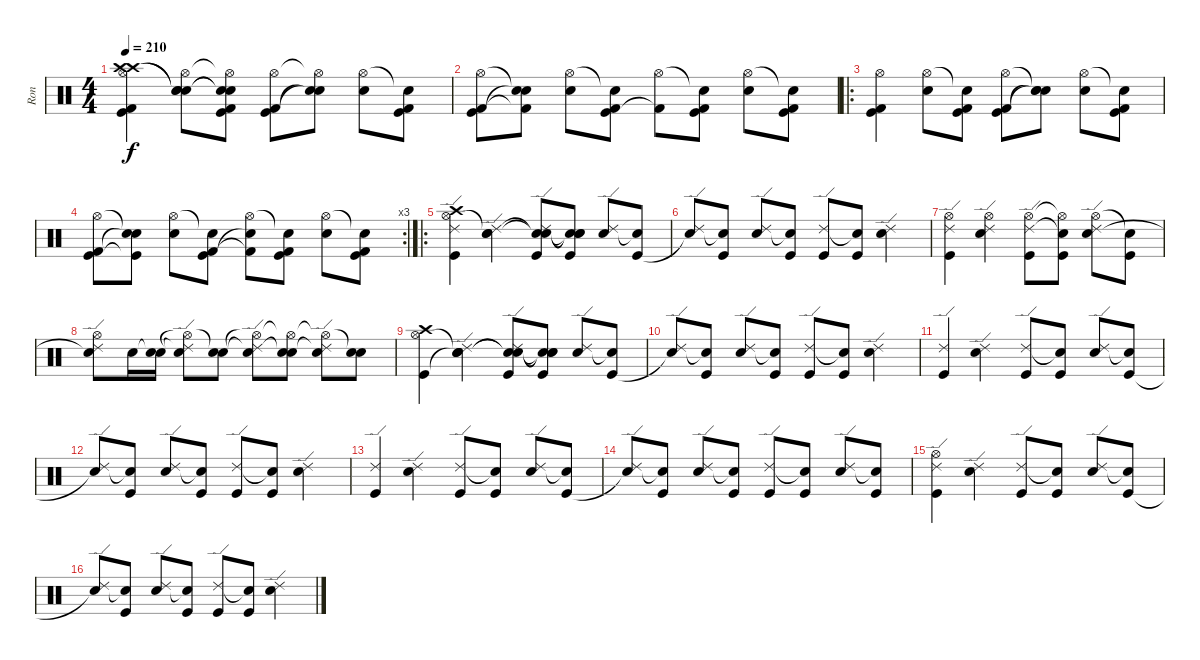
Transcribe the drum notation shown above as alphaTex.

\track ("Ron" "Ron") {instrument percussion}
\staff {score}
\articulation defaults
\ts (4 4)
\tempo 210
\clef neutral
\ks c
("Hi-Hat (open)" "Crash high (hit)" "Crash high (hit)" "Kick (hit)" "Kick (hit) 2").4{dy f} ("Hi-Hat (open)" "Snare (hit)"{t} "Snare (hit)"{t} "Electric Snare (hit)").8 ("Hi-Hat (open)"{t} "Snare (hit)"{t} "Snare (hit)"{t} "Kick (hit)" "Kick (hit) 2").8 ("Hi-Hat (open)" "Kick (hit)" "Kick (hit) 2").8 ("Hi-Hat (open)"{t} "Electric Snare (hit)"{t} "Snare (hit)"{t}).8 ("Hi-Hat (open)" "Electric Snare (hit)").8 ("Snare (hit)"{t} "Kick (hit)" "Kick (hit) 2").8 |
("Hi-Hat (open)" "Kick (hit)" "Kick (hit) 2").8 ("Snare (hit)"{t} "Snare (hit)"{t} "Kick (hit) 2"{t}).8 ("Hi-Hat (open)" "Electric Snare (hit)").8 ("Snare (hit)"{t} "Kick (hit)" "Kick (hit) 2").8 ("Hi-Hat (open)" "Kick (hit) 2"{t}).8 ("Snare (hit)"{t} "Kick (hit)" "Kick (hit) 2").8 ("Hi-Hat (open)" "Electric Snare (hit)").8 ("Snare (hit)"{t} "Kick (hit)" "Kick (hit) 2").8 |
\ro
("Hi-Hat (open)" "Kick (hit)" "Kick (hit) 2").4 ("Hi-Hat (open)" "Electric Snare (hit)").8 ("Snare (hit)"{t} "Kick (hit)" "Kick (hit) 2").8 ("Hi-Hat (open)" "Kick (hit)" "Kick (hit) 2").8 ("Snare (hit)"{t} "Snare (hit)"{t} "Snare (hit)"{t}).8 ("Hi-Hat (open)" "Electric Snare (hit)").8 ("Snare (hit)"{t} "Kick (hit)" "Kick (hit) 2").8 |
\rc 3
("Hi-Hat (open)" "Kick (hit)" "Kick (hit) 2").8 ("Snare (hit)"{t} "Kick (hit)"{t} "Snare (hit)"{t}).8 ("Hi-Hat (open)" "Electric Snare (hit)").8 ("Snare (hit)"{t} "Kick (hit)" "Kick (hit) 2").8 ("Hi-Hat (open)" "Snare (hit)"{t} "Kick (hit) 2"{t}).8 ("Snare (hit)"{t} "Kick (hit)" "Kick (hit) 2").8 ("Hi-Hat (open)" "Electric Snare (hit)").8 ("Snare (hit)"{t} "Kick (hit)" "Kick (hit) 2").8 |
\ro
("Hi-Hat (open)" "Crash high (hit)" "Ride (edge) 2" "Kick (hit)").4 ("Snare (hit)"{t} "Ride (edge) 2" "Electric Snare (hit)").4 ("Snare (hit)"{t} "Snare (hit)"{t} "Ride (edge) 2" "Kick (hit)").8 ("Snare (hit)"{t} "Snare (hit)"{t} "Snare (hit)"{t} "Kick (hit)").8 ("Ride (edge) 2" "Electric Snare (hit)").8 ("Snare (hit)"{t} "Kick (hit)").8 |
("Ride (edge) 2" "Snare (hit)"{t}).8 ("Snare (hit)"{t} "Kick (hit)").8 ("Ride (edge) 2" "Electric Snare (hit)").8 ("Snare (hit)"{t} "Kick (hit)").8 ("Ride (edge) 2" "Kick (hit)").8 ("Snare (hit)"{t} "Kick (hit)").8 ("Ride (edge) 2" "Electric Snare (hit)").4 |
("Hi-Hat (open)" "Ride (edge) 2" "Kick (hit)").4 ("Hi-Hat (open)" "Ride (edge) 2" "Electric Snare (hit)").4 ("Hi-Hat (open)" "Ride (edge) 2" "Kick (hit)").8 ("Hi-Hat (open)"{t} "Snare (hit)"{t} "Kick (hit)").8 ("Hi-Hat (open)" "Ride (edge) 2" "Electric Snare (hit)").8 ("Snare (hit)"{t} "Kick (hit)").8 |
("Hi-Hat (open)" "Ride (edge) 2" "Electric Snare (hit)"{t}).8 "Electric Snare (hit)".16 ("Snare (hit)"{t} "Electric Snare (hit)").16 ("Hi-Hat (open)"{t} "Ride (edge) 2"{t} "Electric Snare (hit)").8 ("Snare (hit)"{t} "Electric Snare (hit)").8 ("Hi-Hat (open)"{t} "Ride (edge) 2"{t} "Electric Snare (hit)").8 ("Hi-Hat (open)"{t} "Snare (hit)"{t} "Electric Snare (hit)").8 ("Hi-Hat (open)"{t} "Ride (edge) 2"{t} "Electric Snare (hit)").8 ("Snare (hit)"{t} "Electric Snare (hit)").8 |
("Hi-Hat (open)" "Crash high (hit)" "Kick (hit)").4 ("Snare (hit)"{t} "Ride (edge) 2" "Snare (hit)"{t} "Electric Snare (hit)").4 ("Snare (hit)"{t} "Ride (edge) 2" "Snare (hit)"{t} "Kick (hit)").8 ("Snare (hit)"{t} "Snare (hit)"{t} "Snare (hit)"{t} "Kick (hit)").8 ("Ride (edge) 2" "Electric Snare (hit)").8 ("Snare (hit)"{t} "Kick (hit)").8 |
("Ride (edge) 2" "Snare (hit)"{t}).8 ("Snare (hit)"{t} "Kick (hit)").8 ("Ride (edge) 2" "Electric Snare (hit)").8 ("Snare (hit)"{t} "Kick (hit)").8 ("Ride (edge) 2" "Kick (hit)").8 ("Snare (hit)"{t} "Kick (hit)").8 ("Ride (edge) 2" "Electric Snare (hit)").4 |
("Ride (edge) 2" "Kick (hit)").4 ("Ride (edge) 2" "Electric Snare (hit)").4 ("Ride (edge) 2" "Kick (hit)").8 ("Snare (hit)"{t} "Kick (hit)").8 ("Ride (edge) 2" "Electric Snare (hit)").8 ("Snare (hit)"{t} "Kick (hit)").8 |
("Ride (edge) 2" "Snare (hit)"{t}).8 ("Snare (hit)"{t} "Kick (hit)").8 ("Ride (edge) 2" "Electric Snare (hit)").8 ("Snare (hit)"{t} "Kick (hit)").8 ("Ride (edge) 2" "Kick (hit)").8 ("Snare (hit)"{t} "Kick (hit)").8 ("Ride (edge) 2" "Electric Snare (hit)").4 |
("Ride (edge) 2" "Kick (hit)").4 ("Ride (edge) 2" "Electric Snare (hit)").4 ("Ride (edge) 2" "Kick (hit)").8 ("Snare (hit)"{t} "Kick (hit)").8 ("Ride (edge) 2" "Electric Snare (hit)").8 ("Snare (hit)"{t} "Kick (hit)").8 |
("Ride (edge) 2" "Snare (hit)"{t}).8 ("Snare (hit)"{t} "Kick (hit)").8 ("Ride (edge) 2" "Electric Snare (hit)").8 ("Snare (hit)"{t} "Kick (hit)").8 ("Ride (edge) 2" "Kick (hit)").8 ("Snare (hit)"{t} "Kick (hit)").8 ("Ride (edge) 2" "Electric Snare (hit)").8 ("Snare (hit)"{t} "Kick (hit)").8 |
("Hi-Hat (open)" "Ride (edge) 2" "Kick (hit)").4 ("Ride (edge) 2" "Electric Snare (hit)").4 ("Ride (edge) 2" "Kick (hit)").8 ("Snare (hit)"{t} "Kick (hit)").8 ("Ride (edge) 2" "Electric Snare (hit)").8 ("Snare (hit)"{t} "Kick (hit)").8 |
("Ride (edge) 2" "Snare (hit)"{t}).8 ("Snare (hit)"{t} "Kick (hit)").8 ("Ride (edge) 2" "Electric Snare (hit)").8 ("Snare (hit)"{t} "Kick (hit)").8 ("Ride (edge) 2" "Kick (hit)").8 ("Snare (hit)"{t} "Kick (hit)").8 ("Ride (edge) 2" "Electric Snare (hit)").4
